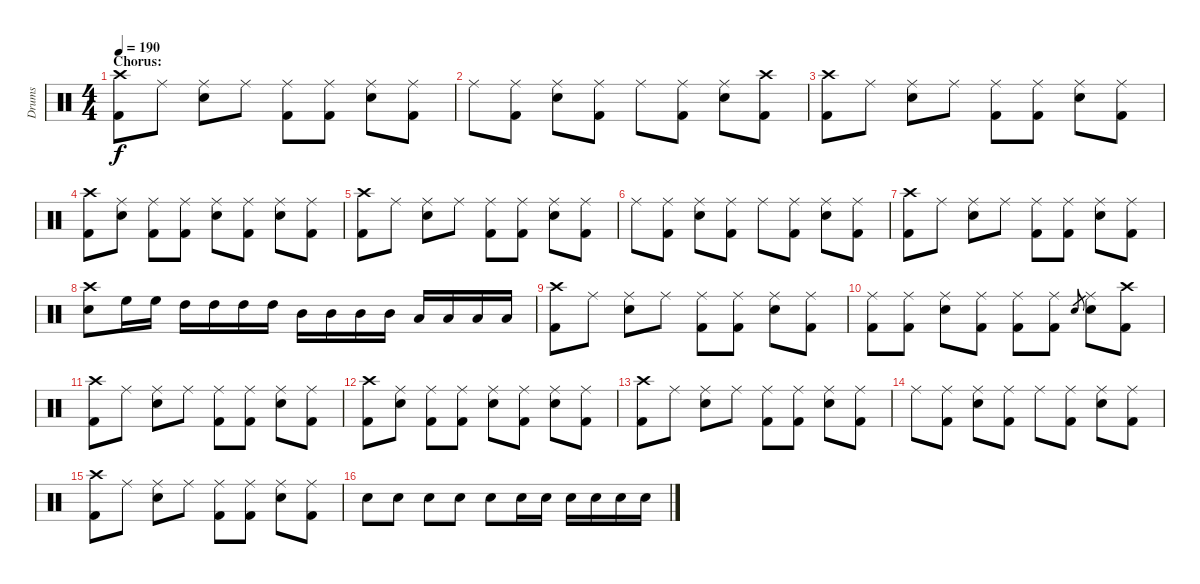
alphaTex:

\track ("Drums" "Drums") {instrument percussion}
\staff {score}
\articulation defaults
\ts (4 4)
\section ("" "Chorus:")
\tempo 190
\clef neutral
\ks c
("Crash high (hit)" "Kick (hit) 2").8{dy f} "Ride (middle)".8 ("Ride (middle)" "Electric Snare (hit)").8 "Ride (middle)".8 ("Ride (middle)" "Kick (hit) 2").8 ("Ride (middle)" "Kick (hit) 2").8 ("Ride (middle)" "Electric Snare (hit)").8 ("Ride (middle)" "Kick (hit) 2").8 |
"Ride (middle)".8 ("Ride (middle)" "Kick (hit) 2").8 ("Ride (middle)" "Electric Snare (hit)").8 ("Ride (middle)" "Kick (hit) 2").8 "Ride (middle)".8 ("Ride (middle)" "Kick (hit) 2").8 ("Ride (middle)" "Electric Snare (hit)").8 ("Crash high (hit)" "Kick (hit) 2").8 |
("Crash high (hit)" "Kick (hit) 2").8 "Ride (middle)".8 ("Ride (middle)" "Electric Snare (hit)").8 "Ride (middle)".8 ("Ride (middle)" "Kick (hit) 2").8 ("Ride (middle)" "Kick (hit) 2").8 ("Ride (middle)" "Electric Snare (hit)").8 ("Ride (middle)" "Kick (hit) 2").8 |
("Crash high (hit)" "Kick (hit) 2").8 ("Ride (middle)" "Electric Snare (hit)").8 ("Ride (middle)" "Kick (hit) 2").8 ("Ride (middle)" "Kick (hit) 2").8 ("Ride (middle)" "Electric Snare (hit)").8 ("Ride (middle)" "Kick (hit) 2").8 ("Ride (middle)" "Electric Snare (hit)").8 ("Ride (middle)" "Kick (hit) 2").8 |
("Crash high (hit)" "Kick (hit) 2").8 "Ride (middle)".8 ("Ride (middle)" "Electric Snare (hit)").8 "Ride (middle)".8 ("Ride (middle)" "Kick (hit) 2").8 ("Ride (middle)" "Kick (hit) 2").8 ("Ride (middle)" "Electric Snare (hit)").8 ("Ride (middle)" "Kick (hit) 2").8 |
"Ride (middle)".8 ("Ride (middle)" "Kick (hit) 2").8 ("Ride (middle)" "Electric Snare (hit)").8 ("Ride (middle)" "Kick (hit) 2").8 "Ride (middle)".8 ("Ride (middle)" "Kick (hit) 2").8 ("Ride (middle)" "Electric Snare (hit)").8 ("Ride (middle)" "Kick (hit) 2").8 |
("Crash high (hit)" "Kick (hit) 2").8 "Ride (middle)".8 ("Ride (middle)" "Electric Snare (hit)").8 "Ride (middle)".8 ("Ride (middle)" "Kick (hit) 2").8 ("Ride (middle)" "Kick (hit) 2").8 ("Ride (middle)" "Electric Snare (hit)").8 ("Ride (middle)" "Kick (hit) 2").8 |
("Crash high (hit)" "Electric Snare (hit)").8 "High Floor Tom (hit)".16 "High Floor Tom (hit)".16 "High Tom (hit)".16 "High Tom (hit)".16 "High Tom (hit)".16 "High Tom (hit)".16 "Mid Tom (hit)".16 "Mid Tom (hit)".16 "Mid Tom (hit)".16 "Mid Tom (hit)".16 "Low Tom (hit)".16 "Low Tom (hit)".16 "Low Tom (hit)".16 "Low Tom (hit)".16 |
("Crash high (hit)" "Kick (hit) 2").8 "Ride (middle)".8 ("Ride (middle)" "Electric Snare (hit)").8 "Ride (middle)".8 ("Ride (middle)" "Kick (hit) 2").8 ("Ride (middle)" "Kick (hit) 2").8 ("Ride (middle)" "Electric Snare (hit)").8 ("Ride (middle)" "Kick (hit) 2").8 |
("Ride (middle)" "Kick (hit) 2").8 ("Ride (middle)" "Kick (hit) 2").8 ("Ride (middle)" "Electric Snare (hit)").8 ("Ride (middle)" "Kick (hit) 2").8 ("Ride (middle)" "Kick (hit) 2").8 ("Ride (middle)" "Kick (hit) 2").8 "Electric Snare (hit)".8{gr} ("Ride (middle)" "Electric Snare (hit)").8 ("Crash high (hit)" "Kick (hit) 2").8 |
("Crash high (hit)" "Kick (hit) 2").8 "Ride (middle)".8 ("Ride (middle)" "Electric Snare (hit)").8 "Ride (middle)".8 ("Ride (middle)" "Kick (hit) 2").8 ("Ride (middle)" "Kick (hit) 2").8 ("Ride (middle)" "Electric Snare (hit)").8 ("Ride (middle)" "Kick (hit) 2").8 |
("Crash high (hit)" "Kick (hit) 2").8 ("Ride (middle)" "Electric Snare (hit)").8 ("Ride (middle)" "Kick (hit) 2").8 ("Ride (middle)" "Kick (hit) 2").8 ("Ride (middle)" "Electric Snare (hit)").8 ("Ride (middle)" "Kick (hit) 2").8 ("Ride (middle)" "Electric Snare (hit)").8 ("Ride (middle)" "Kick (hit) 2").8 |
("Crash high (hit)" "Kick (hit) 2").8 "Ride (middle)".8 ("Ride (middle)" "Electric Snare (hit)").8 "Ride (middle)".8 ("Ride (middle)" "Kick (hit) 2").8 ("Ride (middle)" "Kick (hit) 2").8 ("Ride (middle)" "Electric Snare (hit)").8 ("Ride (middle)" "Kick (hit) 2").8 |
"Ride (middle)".8 ("Ride (middle)" "Kick (hit) 2").8 ("Ride (middle)" "Electric Snare (hit)").8 ("Ride (middle)" "Kick (hit) 2").8 "Ride (middle)".8 ("Ride (middle)" "Kick (hit) 2").8 ("Ride (middle)" "Electric Snare (hit)").8 ("Ride (middle)" "Kick (hit) 2").8 |
("Crash high (hit)" "Kick (hit) 2").8 "Ride (middle)".8 ("Ride (middle)" "Electric Snare (hit)").8 "Ride (middle)".8 ("Ride (middle)" "Kick (hit) 2").8 ("Ride (middle)" "Kick (hit) 2").8 ("Ride (middle)" "Electric Snare (hit)").8 ("Ride (middle)" "Kick (hit) 2").8 |
"Electric Snare (hit)".8 "Electric Snare (hit)".8 "Electric Snare (hit)".8 "Electric Snare (hit)".8 "Electric Snare (hit)".8 "Electric Snare (hit)".16 "Electric Snare (hit)".16 "Electric Snare (hit)".16 "Electric Snare (hit)".16 "Electric Snare (hit)".16 "Electric Snare (hit)".16
